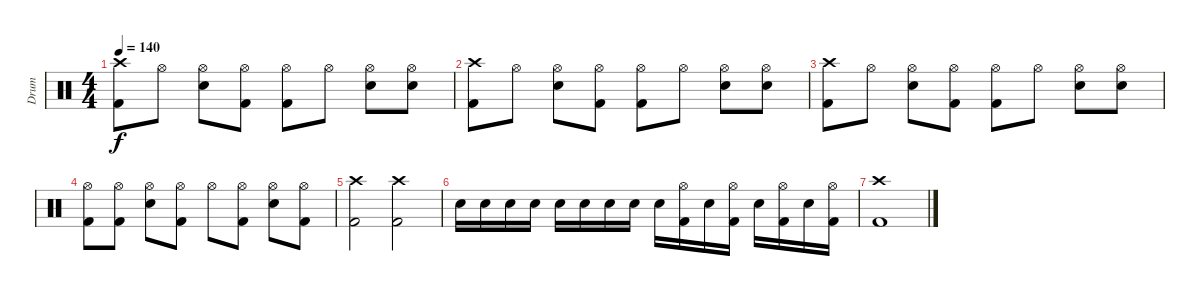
\track ("Drum" "Drum") {instrument percussion}
\staff {score}
\articulation defaults
\ts (4 4)
\tempo 140
\clef neutral
\ks c
("Kick (hit) 2" "Crash high (hit)").8{dy f} "Hi-Hat (open)".8 ("Electric Snare (hit)" "Hi-Hat (open)").8 ("Kick (hit) 2" "Hi-Hat (open)").8 ("Kick (hit) 2" "Hi-Hat (open)").8 "Hi-Hat (open)".8 ("Electric Snare (hit)" "Hi-Hat (open)").8 ("Electric Snare (hit)" "Hi-Hat (open)").8 |
("Kick (hit) 2" "Crash high (hit)").8 "Hi-Hat (open)".8 ("Electric Snare (hit)" "Hi-Hat (open)").8 ("Kick (hit) 2" "Hi-Hat (open)").8 ("Kick (hit) 2" "Hi-Hat (open)").8 "Hi-Hat (open)".8 ("Electric Snare (hit)" "Hi-Hat (open)").8 ("Electric Snare (hit)" "Hi-Hat (open)").8 |
("Kick (hit) 2" "Crash high (hit)").8 "Hi-Hat (open)".8 ("Electric Snare (hit)" "Hi-Hat (open)").8 ("Kick (hit) 2" "Hi-Hat (open)").8 ("Kick (hit) 2" "Hi-Hat (open)").8 "Hi-Hat (open)".8 ("Electric Snare (hit)" "Hi-Hat (open)").8 ("Electric Snare (hit)" "Hi-Hat (open)").8 |
("Kick (hit) 2" "Hi-Hat (open)").8 ("Kick (hit) 2" "Hi-Hat (open)").8 ("Electric Snare (hit)" "Hi-Hat (open)").8 ("Kick (hit) 2" "Hi-Hat (open)").8 "Hi-Hat (open)".8 ("Kick (hit) 2" "Hi-Hat (open)").8 ("Electric Snare (hit)" "Hi-Hat (open)").8 ("Kick (hit) 2" "Hi-Hat (open)").8 |
("Kick (hit) 2" "Crash high (hit)").2 ("Kick (hit) 2" "Crash high (hit)").2 |
"Electric Snare (hit)".16 "Electric Snare (hit)".16 "Electric Snare (hit)".16 "Electric Snare (hit)".16 "Electric Snare (hit)".16 "Electric Snare (hit)".16 "Electric Snare (hit)".16 "Electric Snare (hit)".16 "Electric Snare (hit)".16 ("Kick (hit) 2" "Hi-Hat (open)").16 "Electric Snare (hit)".16 ("Kick (hit) 2" "Hi-Hat (open)").16 "Electric Snare (hit)".16 ("Kick (hit) 2" "Hi-Hat (open)").16 "Electric Snare (hit)".16 ("Kick (hit) 2" "Hi-Hat (open)").16 |
("Kick (hit) 2" "Crash high (hit)").1
